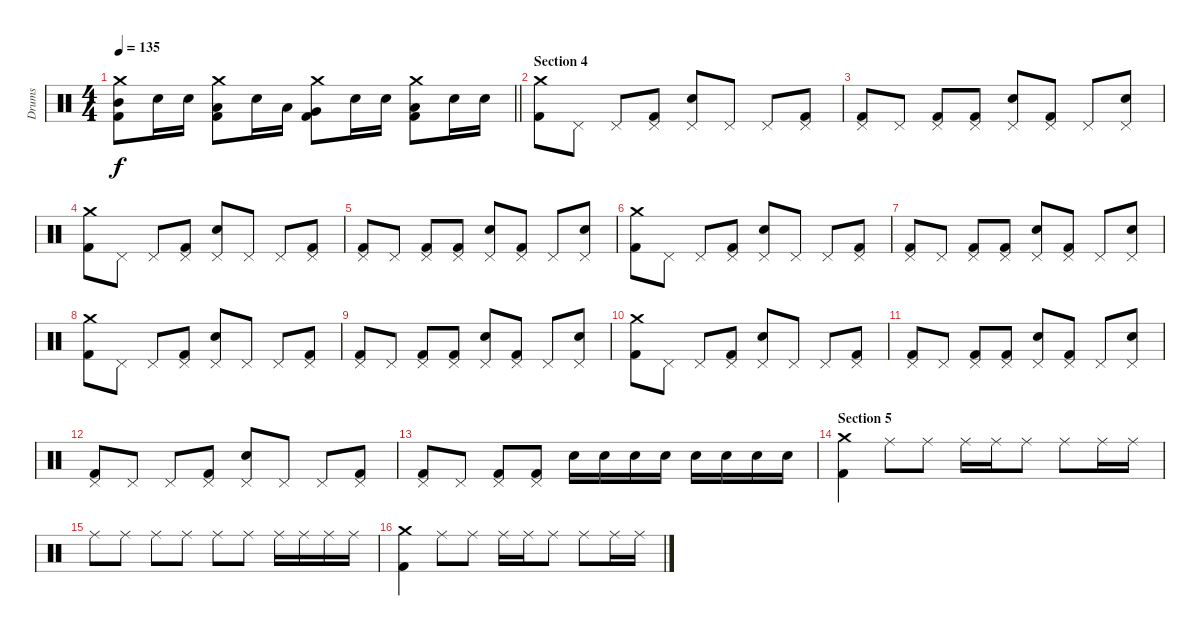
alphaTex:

\track ("Drums" "Drums") {instrument percussion}
\staff {score}
\articulation defaults
\ts (4 4)
\tempo 135
\clef neutral
\barLineRight lightlight
\ks c
("Crash medium (hit)" "Kick (hit) 2" "Mid Tom (hit)").8{dy f} "Electric Snare (hit)".16 "Electric Snare (hit)".16 ("Crash medium (hit)" "Kick (hit) 2" "Low Tom (hit)").8 "Electric Snare (hit)".16 "Low Tom (hit)".16 ("Crash medium (hit)" "Kick (hit) 2" "Very Low Tom (hit)").8 "Electric Snare (hit)".16 "Electric Snare (hit)".16 ("Crash medium (hit)" "Kick (hit) 2" "Low Tom (hit)").8 "Electric Snare (hit)".16 "Electric Snare (hit)".16 |
\section ("" "Section 4")
("Crash medium (hit)" "Kick (hit) 2").8 "Pedal Hi-Hat (hit)".8 "Pedal Hi-Hat (hit)".8 ("Pedal Hi-Hat (hit)" "Kick (hit) 2").8 ("Pedal Hi-Hat (hit)" "Electric Snare (hit)").8 "Pedal Hi-Hat (hit)".8 "Pedal Hi-Hat (hit)".8 ("Pedal Hi-Hat (hit)" "Kick (hit) 2").8 |
("Pedal Hi-Hat (hit)" "Kick (hit) 2").8 "Pedal Hi-Hat (hit)".8 ("Pedal Hi-Hat (hit)" "Kick (hit) 2").8 ("Pedal Hi-Hat (hit)" "Kick (hit) 2").8 ("Pedal Hi-Hat (hit)" "Electric Snare (hit)").8 ("Pedal Hi-Hat (hit)" "Kick (hit) 2").8 "Pedal Hi-Hat (hit)".8 ("Pedal Hi-Hat (hit)" "Electric Snare (hit)").8 |
("Crash medium (hit)" "Kick (hit) 2").8 "Pedal Hi-Hat (hit)".8 "Pedal Hi-Hat (hit)".8 ("Pedal Hi-Hat (hit)" "Kick (hit) 2").8 ("Pedal Hi-Hat (hit)" "Electric Snare (hit)").8 "Pedal Hi-Hat (hit)".8 "Pedal Hi-Hat (hit)".8 ("Pedal Hi-Hat (hit)" "Kick (hit) 2").8 |
("Pedal Hi-Hat (hit)" "Kick (hit) 2").8 "Pedal Hi-Hat (hit)".8 ("Pedal Hi-Hat (hit)" "Kick (hit) 2").8 ("Pedal Hi-Hat (hit)" "Kick (hit) 2").8 ("Pedal Hi-Hat (hit)" "Electric Snare (hit)").8 ("Pedal Hi-Hat (hit)" "Kick (hit) 2").8 "Pedal Hi-Hat (hit)".8 ("Pedal Hi-Hat (hit)" "Electric Snare (hit)").8 |
("Crash medium (hit)" "Kick (hit) 2").8 "Pedal Hi-Hat (hit)".8 "Pedal Hi-Hat (hit)".8 ("Pedal Hi-Hat (hit)" "Kick (hit) 2").8 ("Pedal Hi-Hat (hit)" "Electric Snare (hit)").8 "Pedal Hi-Hat (hit)".8 "Pedal Hi-Hat (hit)".8 ("Pedal Hi-Hat (hit)" "Kick (hit) 2").8 |
("Pedal Hi-Hat (hit)" "Kick (hit) 2").8 "Pedal Hi-Hat (hit)".8 ("Pedal Hi-Hat (hit)" "Kick (hit) 2").8 ("Pedal Hi-Hat (hit)" "Kick (hit) 2").8 ("Pedal Hi-Hat (hit)" "Electric Snare (hit)").8 ("Pedal Hi-Hat (hit)" "Kick (hit) 2").8 "Pedal Hi-Hat (hit)".8 ("Pedal Hi-Hat (hit)" "Electric Snare (hit)").8 |
("Crash medium (hit)" "Kick (hit) 2").8 "Pedal Hi-Hat (hit)".8 "Pedal Hi-Hat (hit)".8 ("Pedal Hi-Hat (hit)" "Kick (hit) 2").8 ("Pedal Hi-Hat (hit)" "Electric Snare (hit)").8 "Pedal Hi-Hat (hit)".8 "Pedal Hi-Hat (hit)".8 ("Pedal Hi-Hat (hit)" "Kick (hit) 2").8 |
("Pedal Hi-Hat (hit)" "Kick (hit) 2").8 "Pedal Hi-Hat (hit)".8 ("Pedal Hi-Hat (hit)" "Kick (hit) 2").8 ("Pedal Hi-Hat (hit)" "Kick (hit) 2").8 ("Pedal Hi-Hat (hit)" "Electric Snare (hit)").8 ("Pedal Hi-Hat (hit)" "Kick (hit) 2").8 "Pedal Hi-Hat (hit)".8 ("Pedal Hi-Hat (hit)" "Electric Snare (hit)").8 |
("Crash medium (hit)" "Kick (hit) 2").8 "Pedal Hi-Hat (hit)".8 "Pedal Hi-Hat (hit)".8 ("Pedal Hi-Hat (hit)" "Kick (hit) 2").8 ("Pedal Hi-Hat (hit)" "Electric Snare (hit)").8 "Pedal Hi-Hat (hit)".8 "Pedal Hi-Hat (hit)".8 ("Pedal Hi-Hat (hit)" "Kick (hit) 2").8 |
("Pedal Hi-Hat (hit)" "Kick (hit) 2").8 "Pedal Hi-Hat (hit)".8 ("Pedal Hi-Hat (hit)" "Kick (hit) 2").8 ("Pedal Hi-Hat (hit)" "Kick (hit) 2").8 ("Pedal Hi-Hat (hit)" "Electric Snare (hit)").8 ("Pedal Hi-Hat (hit)" "Kick (hit) 2").8 "Pedal Hi-Hat (hit)".8 ("Pedal Hi-Hat (hit)" "Electric Snare (hit)").8 |
("Pedal Hi-Hat (hit)" "Kick (hit) 2").8 "Pedal Hi-Hat (hit)".8 "Pedal Hi-Hat (hit)".8 ("Pedal Hi-Hat (hit)" "Kick (hit) 2").8 ("Pedal Hi-Hat (hit)" "Electric Snare (hit)").8 "Pedal Hi-Hat (hit)".8 "Pedal Hi-Hat (hit)".8 ("Pedal Hi-Hat (hit)" "Kick (hit) 2").8 |
("Pedal Hi-Hat (hit)" "Kick (hit) 2").8 "Pedal Hi-Hat (hit)".8 ("Pedal Hi-Hat (hit)" "Kick (hit) 2").8 ("Pedal Hi-Hat (hit)" "Kick (hit) 2").8 "Electric Snare (hit)".16 "Electric Snare (hit)".16 "Electric Snare (hit)".16 "Electric Snare (hit)".16 "Electric Snare (hit)".16 "Electric Snare (hit)".16 "Electric Snare (hit)".16 "Electric Snare (hit)".16 |
\section ("" "Section 5")
("Crash medium (hit)" "Kick (hit) 2").4 "Ride (middle)".8 "Ride (middle)".8 "Ride (middle)".16 "Ride (middle)".16 "Ride (middle)".8 "Ride (middle)".8 "Ride (middle)".16 "Ride (middle)".16 |
"Ride (middle)".8 "Ride (middle)".8 "Ride (middle)".8 "Ride (middle)".8 "Ride (middle)".8 "Ride (middle)".8 "Ride (middle)".16 "Ride (middle)".16 "Ride (middle)".16 "Ride (middle)".16 |
("Crash medium (hit)" "Kick (hit) 2").4 "Ride (middle)".8 "Ride (middle)".8 "Ride (middle)".16 "Ride (middle)".16 "Ride (middle)".8 "Ride (middle)".8 "Ride (middle)".16 "Ride (middle)".16
